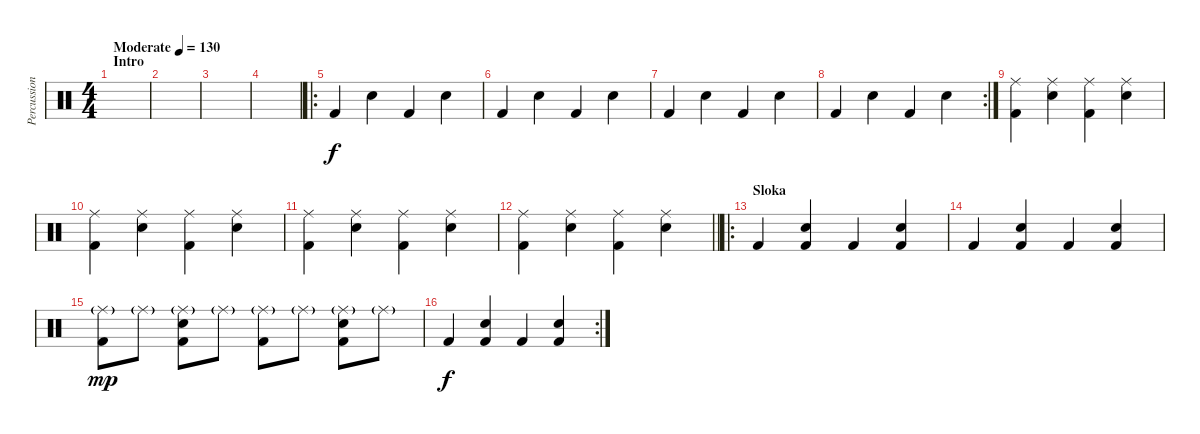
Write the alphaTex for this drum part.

\track ("Percussion" "Percussion") {instrument percussion}
\staff {score}
\articulation defaults
\ts (4 4)
\section ("" "Intro")
\tempo (130 "Moderate")
\clef neutral
\ks c
|
|
|
|
\ro "Kick (hit) 2".4 "Snare (hit) 2".4 "Kick (hit) 2".4 "Snare (hit) 2".4
|
"Kick (hit) 2".4 "Snare (hit) 2".4 "Kick (hit) 2".4 "Snare (hit) 2".4 |
"Kick (hit) 2".4 "Snare (hit) 2".4 "Kick (hit) 2".4 "Snare (hit) 2".4 |
\rc 2 "Kick (hit) 2".4 "Snare (hit) 2".4 "Kick (hit) 2".4 "Snare (hit) 2".4
|
("Kick (hit) 2" "Ride (middle)").4 ("Snare (hit) 2" "Ride (middle)").4 ("Kick (hit) 2" "Ride (middle)").4 ("Snare (hit) 2" "Ride (middle)").4 |
("Kick (hit) 2" "Ride (middle)").4 ("Snare (hit) 2" "Ride (middle)").4 ("Kick (hit) 2" "Ride (middle)").4 ("Snare (hit) 2" "Ride (middle)").4 |
("Kick (hit) 2" "Ride (middle)").4 ("Snare (hit) 2" "Ride (middle)").4 ("Kick (hit) 2" "Ride (middle)").4 ("Snare (hit) 2" "Ride (middle)").4 |
\barLineRight lightlight
("Kick (hit) 2" "Ride (middle)").4 ("Snare (hit) 2" "Ride (middle)").4 ("Kick (hit) 2" "Ride (middle)").4 ("Snare (hit) 2" "Ride (middle)").4 |
\ro
\section ("" "Sloka")
"Kick (hit) 2".4 ("Snare (hit) 2" "Kick (hit) 2").4 "Kick (hit) 2".4 ("Snare (hit) 2" "Kick (hit) 2").4 |
"Kick (hit) 2".4 ("Snare (hit) 2" "Kick (hit) 2").4 "Kick (hit) 2".4 ("Snare (hit) 2" "Kick (hit) 2").4 |
("Kick (hit) 2" "Ride (middle)"{g}).8{dy mp} "Ride (middle)"{g}.8 ("Snare (hit) 2" "Kick (hit) 2" "Ride (middle)"{g}).8 "Ride (middle)"{g}.8 ("Kick (hit) 2" "Ride (middle)"{g}).8 "Ride (middle)"{g}.8 ("Snare (hit) 2" "Kick (hit) 2" "Ride (middle)"{g}).8 "Ride (middle)"{g}.8 |
\rc 2 "Kick (hit) 2".4{dy f}
("Snare (hit) 2" "Kick (hit) 2").4 "Kick (hit) 2".4 ("Snare (hit) 2" "Kick (hit) 2").4
